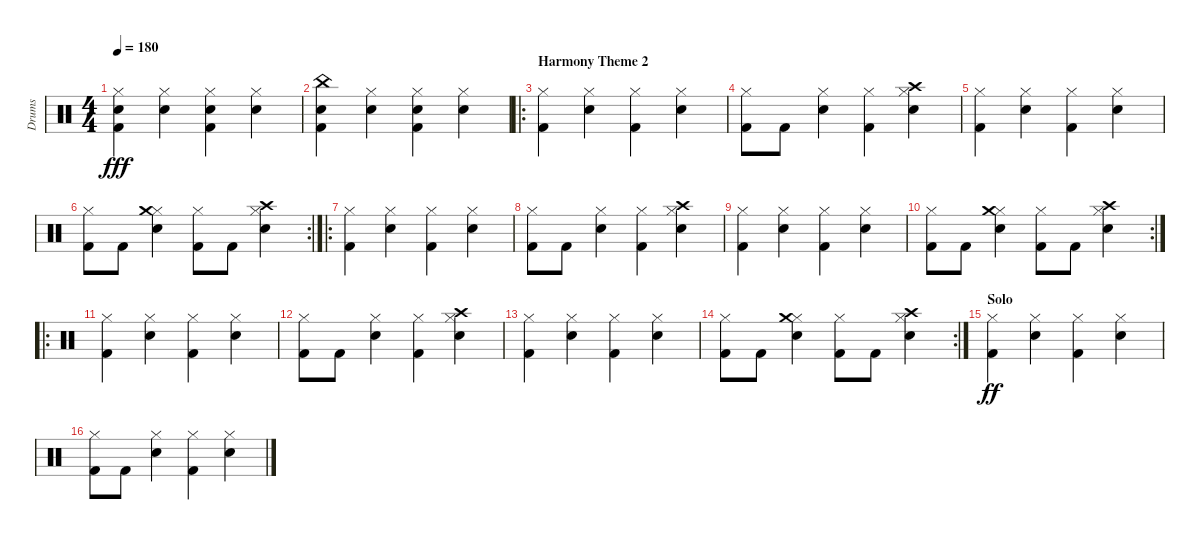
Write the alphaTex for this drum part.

\track ("Drums" "Drums") {instrument percussion}
\staff {score}
\articulation defaults
\ts (4 4)
\tempo 180
\clef neutral
\ks c
("Hi-Hat (closed)" "Snare (hit) 2" "Kick (hit) 2").4{dy fff} ("Hi-Hat (closed)" "Snare (hit) 2").4 ("Hi-Hat (closed)" "Snare (hit) 2" "Kick (hit) 2").4 ("Hi-Hat (closed)" "Snare (hit) 2").4 |
("China (hit)" "Snare (hit) 2" "Kick (hit) 2").4 ("Hi-Hat (closed)" "Snare (hit) 2").4 ("Hi-Hat (closed)" "Snare (hit) 2" "Kick (hit) 2").4 ("Hi-Hat (closed)" "Snare (hit) 2").4 |
\ro
\section ("" "Harmony Theme 2")
("Hi-Hat (closed)" "Kick (hit) 2").4 ("Hi-Hat (closed)" "Snare (hit) 2").4 ("Hi-Hat (closed)" "Kick (hit) 2").4 ("Hi-Hat (closed)" "Snare (hit) 2").4 |
("Hi-Hat (closed)" "Kick (hit) 2").8 "Kick (hit) 2".8 ("Hi-Hat (closed)" "Snare (hit) 2").4 ("Hi-Hat (closed)" "Kick (hit) 2").4 ("Hi-Hat (closed)" "Crash high (hit)" "Snare (hit) 2").4 |
("Hi-Hat (closed)" "Kick (hit) 2").4 ("Hi-Hat (closed)" "Snare (hit) 2").4 ("Hi-Hat (closed)" "Kick (hit) 2").4 ("Hi-Hat (closed)" "Snare (hit) 2").4 |
\rc 2
("Hi-Hat (closed)" "Kick (hit) 2").8 "Kick (hit) 2".8 ("Hi-Hat (closed)" "Crash medium (hit)" "Snare (hit) 2").4 ("Hi-Hat (closed)" "Kick (hit) 2").8 "Kick (hit) 2".8 ("Hi-Hat (closed)" "Crash high (hit)" "Snare (hit) 2").4 |
\ro
("Hi-Hat (closed)" "Kick (hit) 2").4 ("Hi-Hat (closed)" "Snare (hit) 2").4 ("Hi-Hat (closed)" "Kick (hit) 2").4 ("Hi-Hat (closed)" "Snare (hit) 2").4 |
("Hi-Hat (closed)" "Kick (hit) 2").8 "Kick (hit) 2".8 ("Hi-Hat (closed)" "Snare (hit) 2").4 ("Hi-Hat (closed)" "Kick (hit) 2").4 ("Hi-Hat (closed)" "Crash high (hit)" "Snare (hit) 2").4 |
("Hi-Hat (closed)" "Kick (hit) 2").4 ("Hi-Hat (closed)" "Snare (hit) 2").4 ("Hi-Hat (closed)" "Kick (hit) 2").4 ("Hi-Hat (closed)" "Snare (hit) 2").4 |
\rc 2
("Hi-Hat (closed)" "Kick (hit) 2").8 "Kick (hit) 2".8 ("Hi-Hat (closed)" "Crash medium (hit)" "Snare (hit) 2").4 ("Hi-Hat (closed)" "Kick (hit) 2").8 "Kick (hit) 2".8 ("Hi-Hat (closed)" "Crash high (hit)" "Snare (hit) 2").4 |
\ro
("Hi-Hat (closed)" "Kick (hit) 2").4 ("Hi-Hat (closed)" "Snare (hit) 2").4 ("Hi-Hat (closed)" "Kick (hit) 2").4 ("Hi-Hat (closed)" "Snare (hit) 2").4 |
("Hi-Hat (closed)" "Kick (hit) 2").8 "Kick (hit) 2".8 ("Hi-Hat (closed)" "Snare (hit) 2").4 ("Hi-Hat (closed)" "Kick (hit) 2").4 ("Hi-Hat (closed)" "Crash high (hit)" "Snare (hit) 2").4 |
("Hi-Hat (closed)" "Kick (hit) 2").4 ("Hi-Hat (closed)" "Snare (hit) 2").4 ("Hi-Hat (closed)" "Kick (hit) 2").4 ("Hi-Hat (closed)" "Snare (hit) 2").4 |
\rc 2
("Hi-Hat (closed)" "Kick (hit) 2").8 "Kick (hit) 2".8 ("Hi-Hat (closed)" "Crash medium (hit)" "Snare (hit) 2").4 ("Hi-Hat (closed)" "Kick (hit) 2").8 "Kick (hit) 2".8 ("Hi-Hat (closed)" "Crash high (hit)" "Snare (hit) 2").4 |
\section ("" "Solo")
("Hi-Hat (closed)" "Kick (hit) 2").4{dy ff} ("Hi-Hat (closed)" "Snare (hit) 2").4 ("Hi-Hat (closed)" "Kick (hit) 2").4 ("Hi-Hat (closed)" "Snare (hit) 2").4 |
("Hi-Hat (closed)" "Kick (hit) 2").8 "Kick (hit) 2".8 ("Hi-Hat (closed)" "Snare (hit) 2").4 ("Hi-Hat (closed)" "Kick (hit) 2").4 ("Hi-Hat (closed)" "Snare (hit) 2").4
